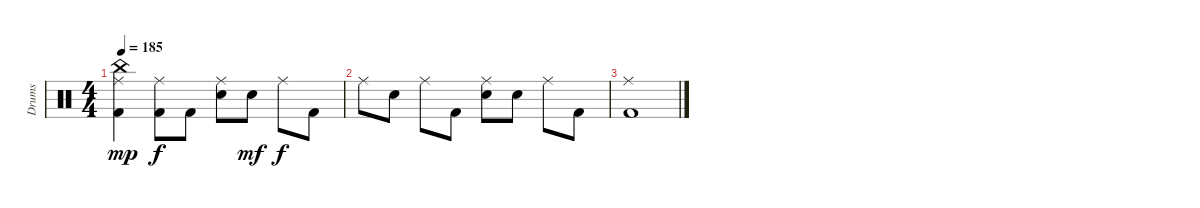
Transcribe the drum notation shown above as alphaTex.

\track ("Drums" "Drums") {instrument percussion}
\staff {score}
\articulation defaults
\ts (4 4)
\tempo 185
\clef neutral
\ks c
("Ride (middle)" "China (hit)" "Kick (hit) 2").4{dy mp} ("Ride (middle)" "Kick (hit) 2").8{dy f} "Kick (hit) 2".8 ("Ride (middle)" "Snare (hit) 2").8 "Snare (hit) 2".8{dy mf} "Ride (middle)".8{dy f} "Kick (hit) 2".8 |
"Ride (middle)".8 "Snare (hit) 2".8 "Ride (middle)".8 "Kick (hit) 2".8 ("Ride (middle)" "Snare (hit) 2").8 "Snare (hit) 2".8 "Ride (middle)".8 "Kick (hit) 2".8 |
("Ride (middle)" "Kick (hit) 2").1
